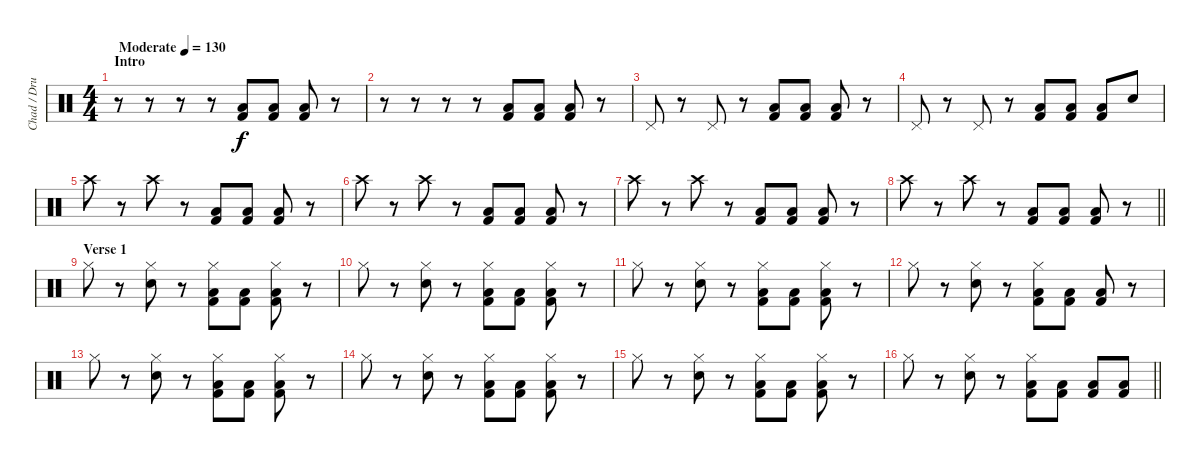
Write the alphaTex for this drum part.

\track ("Chad / Drums" "Chad / Dru") {instrument percussion}
\staff {score}
\articulation defaults
\ts (4 4)
\section ("" "Intro")
\tempo (130 "Moderate")
\clef neutral
\ks c
r.8{dy f} r.8 r.8 r.8 ("Low Floor Tom (hit)" "Kick (hit) 2").8 ("Low Floor Tom (hit)" "Kick (hit) 2").8 ("Low Floor Tom (hit)" "Kick (hit) 2").8 r.8 |
r.8 r.8 r.8 r.8 ("Low Floor Tom (hit)" "Kick (hit) 2").8 ("Low Floor Tom (hit)" "Kick (hit) 2").8 ("Low Floor Tom (hit)" "Kick (hit) 2").8 r.8 |
"Pedal Hi-Hat (hit)".8 r.8 "Pedal Hi-Hat (hit)".8 r.8 ("Low Floor Tom (hit)" "Kick (hit) 2").8 ("Low Floor Tom (hit)" "Kick (hit) 2").8 ("Low Floor Tom (hit)" "Kick (hit) 2").8 r.8 |
"Pedal Hi-Hat (hit)".8 r.8 "Pedal Hi-Hat (hit)".8 r.8 ("Low Floor Tom (hit)" "Kick (hit) 2").8 ("Low Floor Tom (hit)" "Kick (hit) 2").8 ("Low Floor Tom (hit)" "Kick (hit) 2").8 "Snare (hit) 2".8 |
"Crash high (hit)".8 r.8 "Crash high (hit)".8 r.8 ("Low Floor Tom (hit)" "Kick (hit) 2").8 ("Low Floor Tom (hit)" "Kick (hit) 2").8 ("Low Floor Tom (hit)" "Kick (hit) 2").8 r.8 |
"Crash high (hit)".8 r.8 "Crash high (hit)".8 r.8 ("Low Floor Tom (hit)" "Kick (hit) 2").8 ("Low Floor Tom (hit)" "Kick (hit) 2").8 ("Low Floor Tom (hit)" "Kick (hit) 2").8 r.8 |
"Crash high (hit)".8 r.8 "Crash high (hit)".8 r.8 ("Low Floor Tom (hit)" "Kick (hit) 2").8 ("Low Floor Tom (hit)" "Kick (hit) 2").8 ("Low Floor Tom (hit)" "Kick (hit) 2").8 r.8 |
\barLineRight lightlight "Crash high (hit)".8
r.8 "Crash high (hit)".8 r.8 ("Low Floor Tom (hit)" "Kick (hit) 2").8 ("Low Floor Tom (hit)" "Kick (hit) 2").8 ("Low Floor Tom (hit)" "Kick (hit) 2").8 r.8 |
\section ("" "Verse 1")
"Hi-Hat (closed)".8 r.8 ("Snare (hit) 2" "Hi-Hat (closed)").8 r.8 ("Hi-Hat (closed)" "Low Floor Tom (hit)" "Kick (hit) 2").8 ("Low Floor Tom (hit)" "Kick (hit) 2").8 ("Hi-Hat (closed)" "Low Floor Tom (hit)" "Kick (hit) 2").8 r.8 |
"Hi-Hat (closed)".8 r.8 ("Snare (hit) 2" "Hi-Hat (closed)").8 r.8 ("Hi-Hat (closed)" "Low Floor Tom (hit)" "Kick (hit) 2").8 ("Low Floor Tom (hit)" "Kick (hit) 2").8 ("Hi-Hat (closed)" "Low Floor Tom (hit)" "Kick (hit) 2").8 r.8 |
"Hi-Hat (closed)".8 r.8 ("Snare (hit) 2" "Hi-Hat (closed)").8 r.8 ("Hi-Hat (closed)" "Low Floor Tom (hit)" "Kick (hit) 2").8 ("Low Floor Tom (hit)" "Kick (hit) 2").8 ("Hi-Hat (closed)" "Low Floor Tom (hit)" "Kick (hit) 2").8 r.8 |
"Hi-Hat (closed)".8 r.8 ("Snare (hit) 2" "Hi-Hat (closed)").8 r.8 ("Hi-Hat (closed)" "Low Floor Tom (hit)" "Kick (hit) 2").8 ("Low Floor Tom (hit)" "Kick (hit) 2").8 ("Low Floor Tom (hit)" "Kick (hit) 2").8 r.8 |
"Hi-Hat (closed)".8 r.8 ("Snare (hit) 2" "Hi-Hat (closed)").8 r.8 ("Hi-Hat (closed)" "Low Floor Tom (hit)" "Kick (hit) 2").8 ("Low Floor Tom (hit)" "Kick (hit) 2").8 ("Hi-Hat (closed)" "Low Floor Tom (hit)" "Kick (hit) 2").8 r.8 |
"Hi-Hat (closed)".8 r.8 ("Snare (hit) 2" "Hi-Hat (closed)").8 r.8 ("Hi-Hat (closed)" "Low Floor Tom (hit)" "Kick (hit) 2").8 ("Low Floor Tom (hit)" "Kick (hit) 2").8 ("Hi-Hat (closed)" "Low Floor Tom (hit)" "Kick (hit) 2").8 r.8 |
"Hi-Hat (closed)".8 r.8 ("Snare (hit) 2" "Hi-Hat (closed)").8 r.8 ("Hi-Hat (closed)" "Low Floor Tom (hit)" "Kick (hit) 2").8 ("Low Floor Tom (hit)" "Kick (hit) 2").8 ("Hi-Hat (closed)" "Low Floor Tom (hit)" "Kick (hit) 2").8 r.8 |
\barLineRight lightlight "Hi-Hat (closed)".8
r.8 ("Snare (hit) 2" "Hi-Hat (closed)").8 r.8 ("Hi-Hat (closed)" "Low Floor Tom (hit)" "Kick (hit) 2").8 ("Low Floor Tom (hit)" "Kick (hit) 2").8 ("Low Floor Tom (hit)" "Kick (hit) 2").8 ("Low Floor Tom (hit)" "Kick (hit) 2").8
